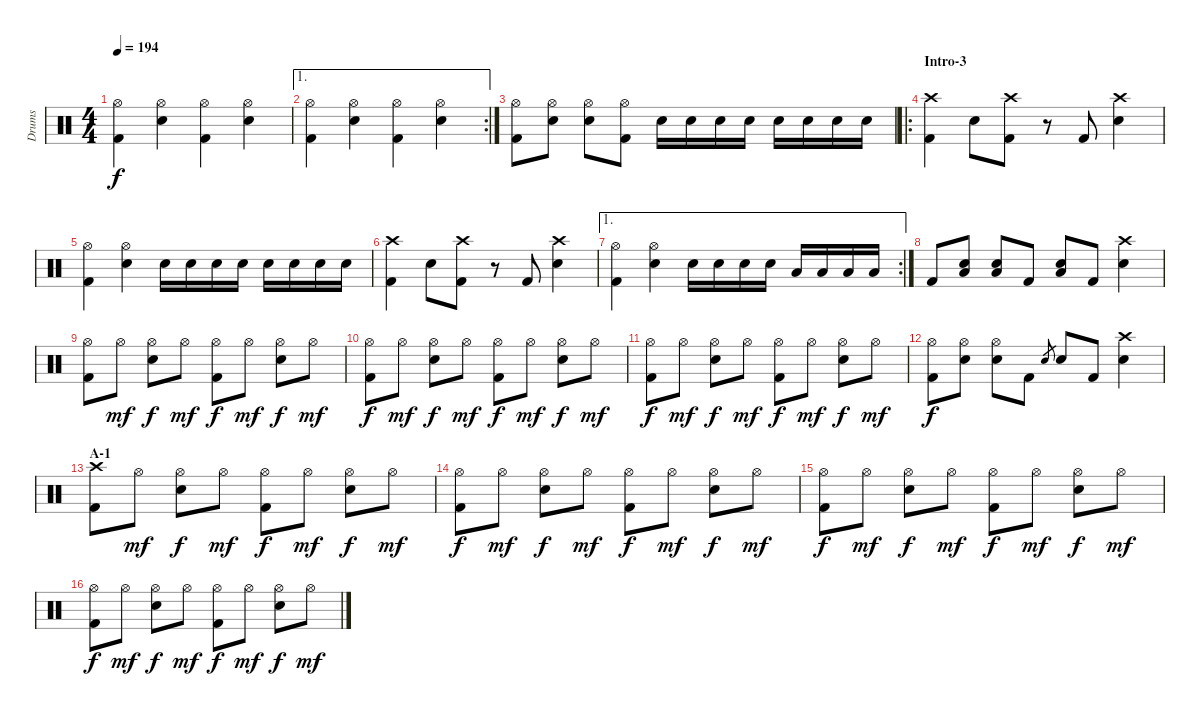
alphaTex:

\track ("Drums" "Drums") {instrument percussion}
\staff {score}
\articulation defaults
\ts (4 4)
\tempo 194
\clef neutral
\ks c
("Hi-Hat (open)" "Kick (hit) 2").4{dy f} ("Hi-Hat (open)" "Electric Snare (hit)").4 ("Hi-Hat (open)" "Kick (hit) 2").4 ("Hi-Hat (open)" "Electric Snare (hit)").4 |
\ae 1
\rc 2
("Hi-Hat (open)" "Kick (hit) 2").4 ("Hi-Hat (open)" "Electric Snare (hit)").4 ("Hi-Hat (open)" "Kick (hit) 2").4 ("Hi-Hat (open)" "Electric Snare (hit)").4 |
("Hi-Hat (open)" "Kick (hit) 2").8 ("Hi-Hat (open)" "Electric Snare (hit)").8 ("Hi-Hat (open)" "Electric Snare (hit)").8 ("Hi-Hat (open)" "Kick (hit) 2").8 "Electric Snare (hit)".16 "Electric Snare (hit)".16 "Electric Snare (hit)".16 "Electric Snare (hit)".16 "Electric Snare (hit)".16 "Electric Snare (hit)".16 "Electric Snare (hit)".16 "Electric Snare (hit)".16 |
\ro
\section ("" "Intro-3")
("Crash high (hit)" "Kick (hit) 2").4 "Electric Snare (hit)".8 ("Crash high (hit)" "Kick (hit) 2").8 r.8 "Kick (hit) 2".8 ("Crash high (hit)" "Electric Snare (hit)").4 |
("Hi-Hat (open)" "Kick (hit) 2").4 ("Hi-Hat (open)" "Electric Snare (hit)").4 "Electric Snare (hit)".16 "Electric Snare (hit)".16 "Electric Snare (hit)".16 "Electric Snare (hit)".16 "Electric Snare (hit)".16 "Electric Snare (hit)".16 "Electric Snare (hit)".16 "Electric Snare (hit)".16 |
("Crash high (hit)" "Kick (hit) 2").4 "Electric Snare (hit)".8 ("Crash high (hit)" "Kick (hit) 2").8 r.8 "Kick (hit) 2".8 ("Crash high (hit)" "Electric Snare (hit)").4 |
\ae 1
\rc 2
("Hi-Hat (open)" "Kick (hit) 2").4 ("Hi-Hat (open)" "Electric Snare (hit)").4 "Electric Snare (hit)".16 "Electric Snare (hit)".16 "Electric Snare (hit)".16 "Electric Snare (hit)".16 "Low Tom (hit)".16 "Low Tom (hit)".16 "Low Tom (hit)".16 "Low Tom (hit)".16 |
"Kick (hit) 2".8 ("Electric Snare (hit)" "Low Tom (hit)").8 ("Electric Snare (hit)" "Low Tom (hit)").8 "Kick (hit) 2".8 ("Electric Snare (hit)" "Low Tom (hit)").8 "Kick (hit) 2".8 ("Crash high (hit)" "Electric Snare (hit)").4 |
("Hi-Hat (open)" "Kick (hit) 2").8 "Hi-Hat (open)".8{dy mf} ("Hi-Hat (open)" "Electric Snare (hit)").8{dy f} "Hi-Hat (open)".8{dy mf} ("Hi-Hat (open)" "Kick (hit) 2").8{dy f} "Hi-Hat (open)".8{dy mf} ("Hi-Hat (open)" "Electric Snare (hit)").8{dy f} "Hi-Hat (open)".8{dy mf} |
("Hi-Hat (open)" "Kick (hit) 2").8{dy f} "Hi-Hat (open)".8{dy mf} ("Hi-Hat (open)" "Electric Snare (hit)").8{dy f} "Hi-Hat (open)".8{dy mf} ("Hi-Hat (open)" "Kick (hit) 2").8{dy f} "Hi-Hat (open)".8{dy mf} ("Hi-Hat (open)" "Electric Snare (hit)").8{dy f} "Hi-Hat (open)".8{dy mf} |
("Hi-Hat (open)" "Kick (hit) 2").8{dy f} "Hi-Hat (open)".8{dy mf} ("Hi-Hat (open)" "Electric Snare (hit)").8{dy f} "Hi-Hat (open)".8{dy mf} ("Hi-Hat (open)" "Kick (hit) 2").8{dy f} "Hi-Hat (open)".8{dy mf} ("Hi-Hat (open)" "Electric Snare (hit)").8{dy f} "Hi-Hat (open)".8{dy mf} |
("Hi-Hat (open)" "Kick (hit) 2").8{dy f} ("Hi-Hat (open)" "Electric Snare (hit)").8 ("Hi-Hat (open)" "Electric Snare (hit)").8 "Kick (hit) 2".8 "Electric Snare (hit)".8{gr} "Electric Snare (hit)".8 "Kick (hit) 2".8 ("Crash high (hit)" "Electric Snare (hit)").4 |
\section ("" "A-1")
("Crash high (hit)" "Kick (hit) 2").8 "Hi-Hat (open)".8{dy mf} ("Hi-Hat (open)" "Electric Snare (hit)").8{dy f} "Hi-Hat (open)".8{dy mf} ("Hi-Hat (open)" "Kick (hit) 2").8{dy f} "Hi-Hat (open)".8{dy mf} ("Hi-Hat (open)" "Electric Snare (hit)").8{dy f} "Hi-Hat (open)".8{dy mf} |
("Hi-Hat (open)" "Kick (hit) 2").8{dy f} "Hi-Hat (open)".8{dy mf} ("Hi-Hat (open)" "Electric Snare (hit)").8{dy f} "Hi-Hat (open)".8{dy mf} ("Hi-Hat (open)" "Kick (hit) 2").8{dy f} "Hi-Hat (open)".8{dy mf} ("Hi-Hat (open)" "Electric Snare (hit)").8{dy f} "Hi-Hat (open)".8{dy mf} |
("Hi-Hat (open)" "Kick (hit) 2").8{dy f} "Hi-Hat (open)".8{dy mf} ("Hi-Hat (open)" "Electric Snare (hit)").8{dy f} "Hi-Hat (open)".8{dy mf} ("Hi-Hat (open)" "Kick (hit) 2").8{dy f} "Hi-Hat (open)".8{dy mf} ("Hi-Hat (open)" "Electric Snare (hit)").8{dy f} "Hi-Hat (open)".8{dy mf} |
("Hi-Hat (open)" "Kick (hit) 2").8{dy f} "Hi-Hat (open)".8{dy mf} ("Hi-Hat (open)" "Electric Snare (hit)").8{dy f} "Hi-Hat (open)".8{dy mf} ("Hi-Hat (open)" "Kick (hit) 2").8{dy f} "Hi-Hat (open)".8{dy mf} ("Hi-Hat (open)" "Electric Snare (hit)").8{dy f} "Hi-Hat (open)".8{dy mf}
